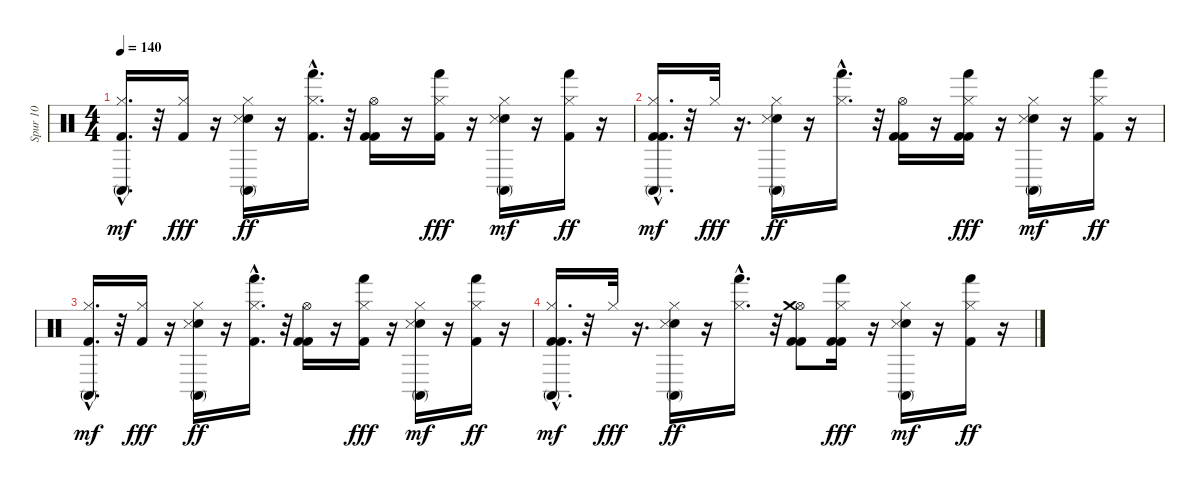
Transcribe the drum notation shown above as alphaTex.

\track ("Spur 10" "Spur 10") {instrument percussion}
\staff {score}
\articulation defaults
\ts (4 4)
\tempo 140
\clef neutral
\ks c
("Hi-Hat (closed)" "Kick (hit) 2" "Conga high (mute)"{hac}).16{d dy mf} r.32 ("Kick (hit) 2" "Hi-Hat (closed)").16{dy fff} r.16 ("Electric Snare (hit)" "Hi-Hat (closed)" "Snare (side stick) 3" "Conga high (mute)").16{dy ff} r.16 ("Kick (hit) 2" "Hi-Hat (closed)" "Hand (hit)"{hac}).16{d} r.32 ("Kick (hit) 2" "Hi-Hat (open)" "Kick (hit) 2").16 r.16 ("Hi-Hat (closed)" "Kick (hit) 2" "Hand (hit)").16{dy fff} r.16 ("Electric Snare (hit)" "Hi-Hat (closed)" "Snare (side stick) 3" "Conga high (mute)").16{dy mf} r.16 ("Kick (hit) 2" "Hi-Hat (closed)" "Hand (hit)").16{dy ff} r.16 |
("Kick (hit) 2" "Hi-Hat (closed)" "Kick (hit) 2" "Conga high (mute)"{hac}).16{d dy mf} r.32 "Hi-Hat (closed)".32{dy fff} r.16{d} ("Electric Snare (hit)" "Hi-Hat (closed)" "Snare (side stick) 3" "Conga high (mute)").16{dy ff} r.16 ("Hi-Hat (closed)" "Hand (hit)"{hac}).16{d} r.32 ("Kick (hit) 2" "Hi-Hat (open)" "Kick (hit) 2").16 r.16 ("Kick (hit) 2" "Hi-Hat (closed)" "Kick (hit) 2" "Hand (hit)").16{dy fff} r.16 ("Electric Snare (hit)" "Hi-Hat (closed)" "Snare (side stick) 3" "Conga high (mute)").16{dy mf} r.16 ("Kick (hit) 2" "Hi-Hat (closed)" "Hand (hit)").16{dy ff} r.16 |
("Hi-Hat (closed)" "Kick (hit) 2" "Conga high (mute)"{hac}).16{d dy mf} r.32 ("Kick (hit) 2" "Hi-Hat (closed)").16{dy fff} r.16 ("Electric Snare (hit)" "Hi-Hat (closed)" "Snare (side stick) 3" "Conga high (mute)").16{dy ff} r.16 ("Kick (hit) 2" "Hi-Hat (closed)" "Hand (hit)"{hac}).16{d} r.32 ("Kick (hit) 2" "Hi-Hat (open)" "Kick (hit) 2").16 r.16 ("Hi-Hat (closed)" "Kick (hit) 2" "Hand (hit)").16{dy fff} r.16 ("Electric Snare (hit)" "Hi-Hat (closed)" "Snare (side stick) 3" "Conga high (mute)").16{dy mf} r.16 ("Kick (hit) 2" "Hi-Hat (closed)" "Hand (hit)").16{dy ff} r.16 |
("Kick (hit) 2" "Hi-Hat (closed)" "Kick (hit) 2" "Conga high (mute)"{hac}).16{d dy mf} r.32 "Hi-Hat (closed)".32{dy fff} r.16{d} ("Electric Snare (hit)" "Hi-Hat (closed)" "Snare (side stick) 3" "Conga high (mute)").16{dy ff} r.16 ("Hi-Hat (closed)" "Hand (hit)"{hac}).16{d} r.32 ("Kick (hit) 2" "Hi-Hat (open)" "Kick (hit) 2" "Crash medium (hit)").8 ("Kick (hit) 2" "Hi-Hat (closed)" "Kick (hit) 2" "Hand (hit)").16{dy fff} r.16 ("Electric Snare (hit)" "Hi-Hat (closed)" "Snare (side stick) 3" "Conga high (mute)").16{dy mf} r.16 ("Kick (hit) 2" "Hi-Hat (closed)" "Hand (hit)").16{dy ff} r.16
